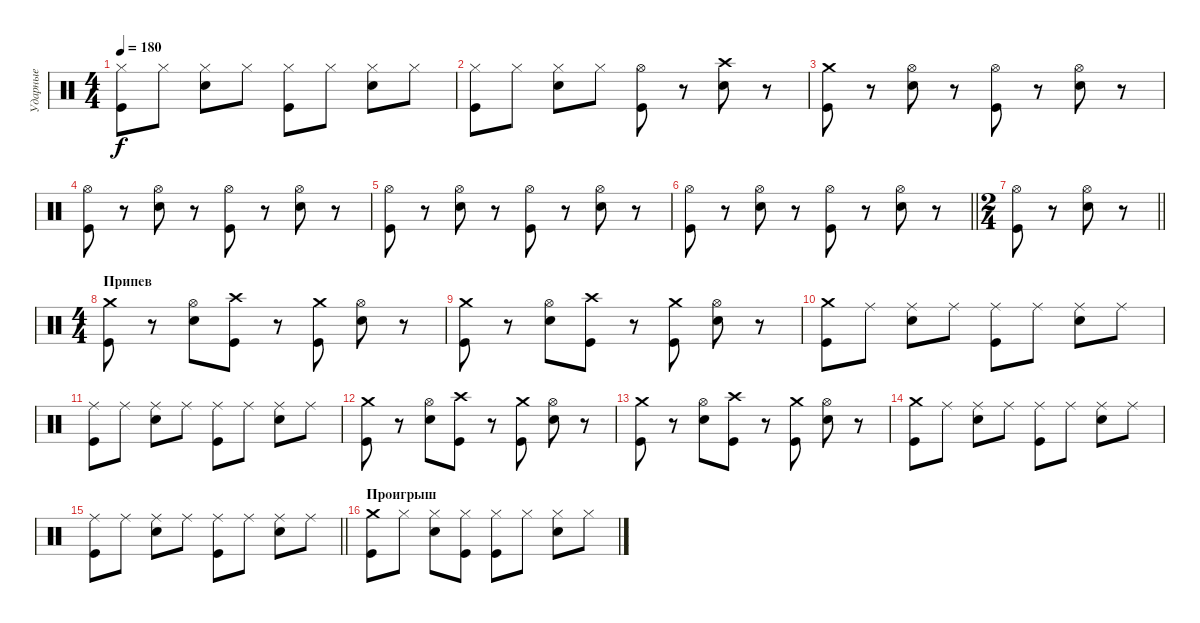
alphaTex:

\track ("Ударные" "Ударные") {instrument percussion}
\staff {score}
\articulation defaults
\ts (4 4)
\tempo 180
\clef neutral
\ks c
("Hi-Hat (closed)" "Kick (hit)").8{dy f} "Hi-Hat (closed)".8 ("Hi-Hat (closed)" "Electric Snare (hit)").8 "Hi-Hat (closed)".8 ("Hi-Hat (closed)" "Kick (hit)").8 "Hi-Hat (closed)".8 ("Hi-Hat (closed)" "Electric Snare (hit)").8 "Hi-Hat (closed)".8 |
("Hi-Hat (closed)" "Kick (hit)").8 "Hi-Hat (closed)".8 ("Hi-Hat (closed)" "Electric Snare (hit)").8 "Hi-Hat (closed)".8 ("Hi-Hat (open)" "Kick (hit)").8 r.8 ("Crash high (hit)" "Electric Snare (hit)").8 r.8 |
("Crash medium (hit)" "Kick (hit)").8 r.8 ("Hi-Hat (open)" "Electric Snare (hit)").8 r.8 ("Hi-Hat (open)" "Kick (hit)").8 r.8 ("Hi-Hat (open)" "Electric Snare (hit)").8 r.8 |
("Hi-Hat (open)" "Kick (hit)").8 r.8 ("Hi-Hat (open)" "Electric Snare (hit)").8 r.8 ("Hi-Hat (open)" "Kick (hit)").8 r.8 ("Hi-Hat (open)" "Electric Snare (hit)").8 r.8 |
("Hi-Hat (open)" "Kick (hit)").8 r.8 ("Hi-Hat (open)" "Electric Snare (hit)").8 r.8 ("Hi-Hat (open)" "Kick (hit)").8 r.8 ("Hi-Hat (open)" "Electric Snare (hit)").8 r.8 |
\barLineRight lightlight
("Hi-Hat (open)" "Kick (hit)").8 r.8 ("Hi-Hat (open)" "Electric Snare (hit)").8 r.8 ("Hi-Hat (open)" "Kick (hit)").8 r.8 ("Hi-Hat (open)" "Electric Snare (hit)").8 r.8 |
\ts (2 4)
\barLineRight lightlight
("Hi-Hat (open)" "Kick (hit)").8 r.8 ("Hi-Hat (open)" "Electric Snare (hit)").8 r.8 |
\ts (4 4)
\section ("" "Припев")
("Crash medium (hit)" "Kick (hit)").8 r.8 ("Hi-Hat (open)" "Electric Snare (hit)").8 ("Crash high (hit)" "Kick (hit)").8 r.8 ("Crash medium (hit)" "Kick (hit)").8 ("Hi-Hat (open)" "Electric Snare (hit)").8 r.8 |
("Crash medium (hit)" "Kick (hit)").8 r.8 ("Hi-Hat (open)" "Electric Snare (hit)").8 ("Crash high (hit)" "Kick (hit)").8 r.8 ("Crash medium (hit)" "Kick (hit)").8 ("Hi-Hat (open)" "Electric Snare (hit)").8 r.8 |
("Crash medium (hit)" "Kick (hit)").8 "Ride (middle)".8 ("Ride (middle)" "Electric Snare (hit)").8 "Ride (middle)".8 ("Ride (middle)" "Kick (hit)").8 "Ride (middle)".8 ("Ride (middle)" "Electric Snare (hit)").8 "Ride (middle)".8 |
("Ride (middle)" "Kick (hit)").8 "Ride (middle)".8 ("Ride (middle)" "Electric Snare (hit)").8 "Ride (middle)".8 ("Ride (middle)" "Kick (hit)").8 "Ride (middle)".8 ("Ride (middle)" "Electric Snare (hit)").8 "Ride (middle)".8 |
("Crash medium (hit)" "Kick (hit)").8 r.8 ("Hi-Hat (open)" "Electric Snare (hit)").8 ("Crash high (hit)" "Kick (hit)").8 r.8 ("Crash medium (hit)" "Kick (hit)").8 ("Hi-Hat (open)" "Electric Snare (hit)").8 r.8 |
("Crash medium (hit)" "Kick (hit)").8 r.8 ("Hi-Hat (open)" "Electric Snare (hit)").8 ("Crash high (hit)" "Kick (hit)").8 r.8 ("Crash medium (hit)" "Kick (hit)").8 ("Hi-Hat (open)" "Electric Snare (hit)").8 r.8 |
("Crash medium (hit)" "Kick (hit)").8 "Ride (middle)".8 ("Ride (middle)" "Electric Snare (hit)").8 "Ride (middle)".8 ("Ride (middle)" "Kick (hit)").8 "Ride (middle)".8 ("Ride (middle)" "Electric Snare (hit)").8 "Ride (middle)".8 |
\barLineRight lightlight
("Ride (middle)" "Kick (hit)").8 "Ride (middle)".8 ("Ride (middle)" "Electric Snare (hit)").8 "Ride (middle)".8 ("Ride (middle)" "Kick (hit)").8 "Ride (middle)".8 ("Ride (middle)" "Electric Snare (hit)").8 "Ride (middle)".8 |
\section ("" "Проигрыш")
("Crash medium (hit)" "Kick (hit)").8 "Hi-Hat (closed)".8 ("Hi-Hat (closed)" "Electric Snare (hit)").8 ("Hi-Hat (closed)" "Kick (hit)").8 ("Hi-Hat (closed)" "Kick (hit)").8 "Hi-Hat (closed)".8 ("Hi-Hat (closed)" "Electric Snare (hit)").8 "Hi-Hat (closed)".8
